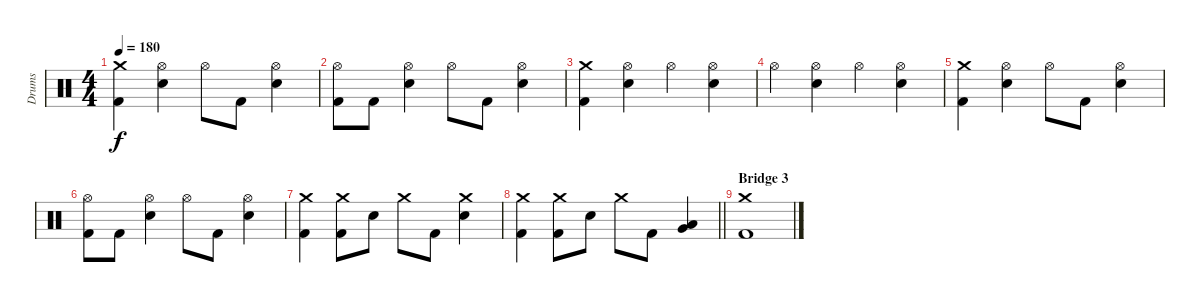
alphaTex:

\track ("Drums" "Drums") {instrument percussion}
\staff {score}
\articulation defaults
\ts (4 4)
\tempo 180
\clef neutral
\ks c
("Crash medium (hit)" "Kick (hit) 2").4{dy f} ("Hi-Hat (open)" "Electric Snare (hit)").4 "Hi-Hat (open)".8 "Kick (hit) 2".8 ("Hi-Hat (open)" "Electric Snare (hit)").4 |
("Hi-Hat (open)" "Kick (hit) 2").8 "Kick (hit) 2".8 ("Hi-Hat (open)" "Electric Snare (hit)").4 "Hi-Hat (open)".8 "Kick (hit) 2".8 ("Hi-Hat (open)" "Electric Snare (hit)").4 |
("Crash medium (hit)" "Kick (hit) 2").4 ("Hi-Hat (open)" "Electric Snare (hit)").4 "Hi-Hat (open)".4 ("Hi-Hat (open)" "Electric Snare (hit)").4 |
"Hi-Hat (open)".4 ("Hi-Hat (open)" "Electric Snare (hit)").4 "Hi-Hat (open)".4 ("Hi-Hat (open)" "Electric Snare (hit)").4 |
("Crash medium (hit)" "Kick (hit) 2").4 ("Hi-Hat (open)" "Electric Snare (hit)").4 "Hi-Hat (open)".8 "Kick (hit) 2".8 ("Hi-Hat (open)" "Electric Snare (hit)").4 |
("Hi-Hat (open)" "Kick (hit) 2").8 "Kick (hit) 2".8 ("Hi-Hat (open)" "Electric Snare (hit)").4 "Hi-Hat (open)".8 "Kick (hit) 2".8 ("Hi-Hat (open)" "Electric Snare (hit)").4 |
("Crash medium (hit)" "Kick (hit) 2").4 ("Crash medium (hit)" "Kick (hit) 2").8 "Electric Snare (hit)".8 "Crash medium (hit)".8 "Kick (hit) 2".8 ("Crash medium (hit)" "Electric Snare (hit)").4 |
\barLineRight lightlight
("Crash medium (hit)" "Kick (hit) 2").4 ("Crash medium (hit)" "Kick (hit) 2").8 "Electric Snare (hit)".8 "Crash medium (hit)".8 "Kick (hit) 2".8 ("Low Tom (hit)" "Very Low Tom (hit)").4 |
\section ("" "Bridge 3")
("Crash medium (hit)" "Kick (hit) 2").1
